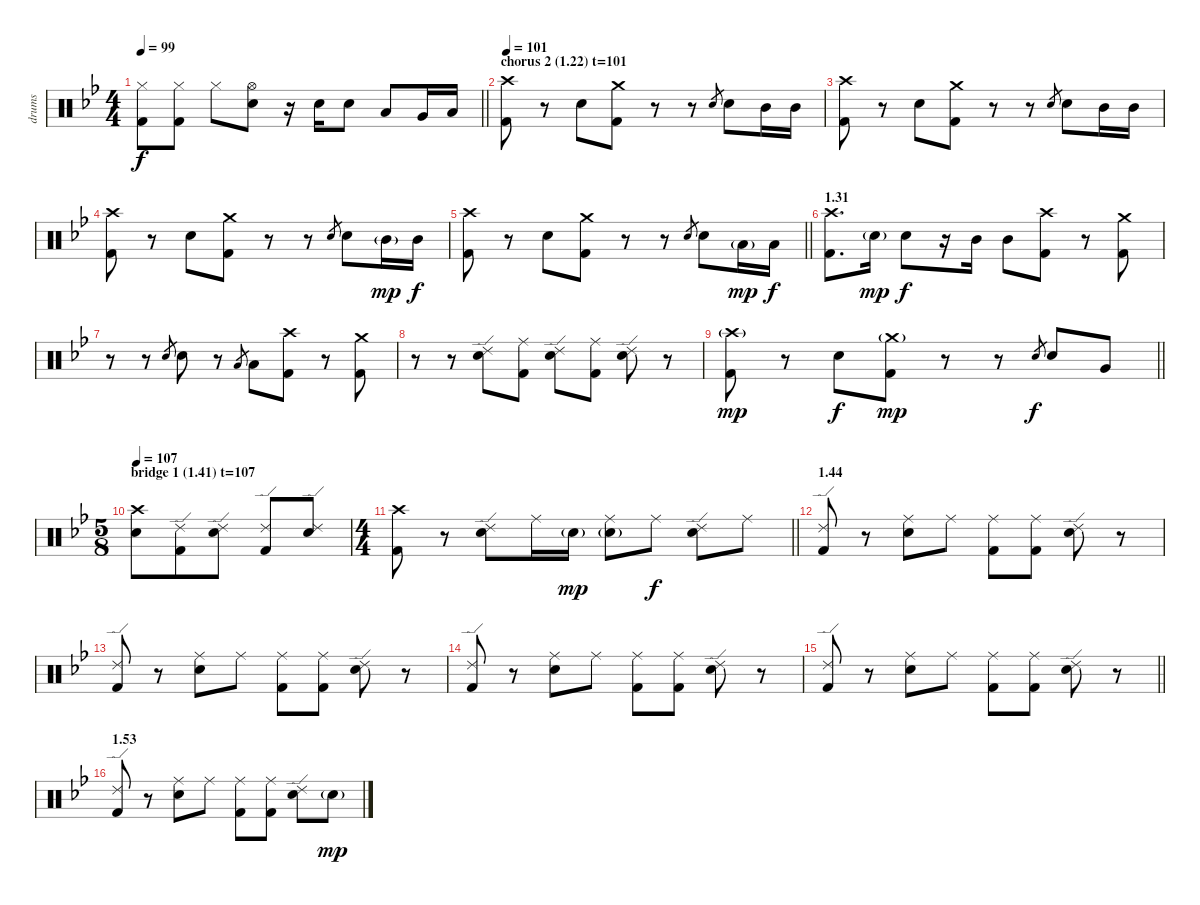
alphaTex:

\track ("drums" "drums") {instrument percussion}
\staff {score}
\articulation defaults
\ts (4 4)
\tempo 99
\clef neutral
\barLineRight lightlight
\ks bb
("Hi-Hat (closed)" "Kick (hit) 2").8{dy f} ("Hi-Hat (closed)" "Kick (hit) 2").8 "Hi-Hat (closed)".8 ("Hi-Hat (open)" "Electric Snare (hit)").8 r.16 "Electric Snare (hit)".16 "Electric Snare (hit)".8 "Low Tom (hit)".8 "Very Low Tom (hit)".16 "Low Tom (hit)".16 |
\section ("" "chorus 2 (1.22) t=101")
\tempo 101
("Crash high (hit)" "Kick (hit) 2").8 r.8 "Electric Snare (hit)".8 ("Crash medium (hit)" "Kick (hit) 2").8 r.8 r.8 "Electric Snare (hit)".8{gr} "Electric Snare (hit)".8 "Mid Tom (hit)".16 "Mid Tom (hit)".16 |
("Crash high (hit)" "Kick (hit) 2").8 r.8 "Electric Snare (hit)".8 ("Crash medium (hit)" "Kick (hit) 2").8 r.8 r.8 "Electric Snare (hit)".8{gr} "Electric Snare (hit)".8 "Mid Tom (hit)".16 "Mid Tom (hit)".16 |
("Crash high (hit)" "Kick (hit) 2").8 r.8 "Electric Snare (hit)".8 ("Crash medium (hit)" "Kick (hit) 2").8 r.8 r.8 "Electric Snare (hit)".8{gr} "Electric Snare (hit)".8 "Mid Tom (hit)"{g}.16{dy mp} "Mid Tom (hit)".16{dy f} |
\barLineRight lightlight
("Crash high (hit)" "Kick (hit) 2").8 r.8 "Electric Snare (hit)".8 ("Crash medium (hit)" "Kick (hit) 2").8 r.8 r.8 "Electric Snare (hit)".8{gr} "Electric Snare (hit)".8 "Low Tom (hit)"{g}.16{dy mp} "Low Tom (hit)".16{dy f} |
\section ("" "1.31")
("Crash high (hit)" "Kick (hit) 2").8{d} "Electric Snare (hit)"{g}.16{dy mp} "Electric Snare (hit)".8{dy f} r.16 "Mid Tom (hit)".16 "Mid Tom (hit)".8 ("Crash high (hit)" "Kick (hit) 2").8 r.8 ("Crash medium (hit)" "Kick (hit) 2").8 |
r.8 r.8 "Electric Snare (hit)".8{gr} "Electric Snare (hit)".8 r.8 "Low Tom (hit)".8{gr} "Low Tom (hit)".8 ("Crash high (hit)" "Kick (hit) 2").8 r.8 ("Crash medium (hit)" "Kick (hit) 2").8 |
r.8 r.8 ("Ride (edge) 2" "Electric Snare (hit)").8 ("Ride (middle)" "Kick (hit) 2").8 ("Ride (edge) 2" "Electric Snare (hit)").8 ("Ride (middle)" "Kick (hit) 2").8 ("Ride (edge) 2" "Electric Snare (hit)").8 r.8 |
\barLineRight lightlight
("Crash high (hit)"{g} "Kick (hit) 2").8{dy mp} r.8 "Electric Snare (hit)".8{dy f} ("Crash medium (hit)"{g} "Kick (hit) 2").8{dy mp} r.8 r.8 "Electric Snare (hit)".8{gr dy f} "Electric Snare (hit)".8 "Very Low Tom (hit)".8 |
\ts (5 8)
\section ("" "bridge 1 (1.41) t=107")
\tempo 107
("Crash high (hit)" "Electric Snare (hit)").8 ("Ride (edge) 2" "Kick (hit) 2").8 ("Ride (edge) 2" "Electric Snare (hit)").8 ("Ride (edge) 2" "Kick (hit) 2").8 ("Ride (edge) 2" "Electric Snare (hit)").8 |
\ts (4 4)
\barLineRight lightlight
("Crash high (hit)" "Kick (hit) 2").8 r.8 ("Ride (edge) 2" "Electric Snare (hit)").8 "Ride (middle)".16 "Electric Snare (hit)"{g}.16{dy mp} ("Ride (middle)" "Electric Snare (hit)"{g}).8 "Ride (middle)".8{dy f} ("Ride (edge) 2" "Electric Snare (hit)").8 "Ride (middle)".8 |
\section ("" "1.44")
("Ride (edge) 2" "Kick (hit) 2").8 r.8 ("Ride (middle)" "Electric Snare (hit)").8 "Ride (middle)".8 ("Ride (middle)" "Kick (hit) 2").8 ("Ride (middle)" "Kick (hit) 2").8 ("Ride (edge) 2" "Electric Snare (hit)").8 r.8 |
("Ride (edge) 2" "Kick (hit) 2").8 r.8 ("Ride (middle)" "Electric Snare (hit)").8 "Ride (middle)".8 ("Ride (middle)" "Kick (hit) 2").8 ("Ride (middle)" "Kick (hit) 2").8 ("Ride (edge) 2" "Electric Snare (hit)").8 r.8 |
("Ride (edge) 2" "Kick (hit) 2").8 r.8 ("Ride (middle)" "Electric Snare (hit)").8 "Ride (middle)".8 ("Ride (middle)" "Kick (hit) 2").8 ("Ride (middle)" "Kick (hit) 2").8 ("Ride (edge) 2" "Electric Snare (hit)").8 r.8 |
\barLineRight lightlight
("Ride (edge) 2" "Kick (hit) 2").8 r.8 ("Ride (middle)" "Electric Snare (hit)").8 "Ride (middle)".8 ("Ride (middle)" "Kick (hit) 2").8 ("Ride (middle)" "Kick (hit) 2").8 ("Ride (edge) 2" "Electric Snare (hit)").8 r.8 |
\section ("" "1.53")
("Ride (edge) 2" "Kick (hit) 2").8 r.8 ("Ride (middle)" "Electric Snare (hit)").8 "Ride (middle)".8 ("Ride (middle)" "Kick (hit) 2").8 ("Ride (middle)" "Kick (hit) 2").8 ("Ride (edge) 2" "Electric Snare (hit)").8 "Electric Snare (hit)"{g}.8{dy mp}
